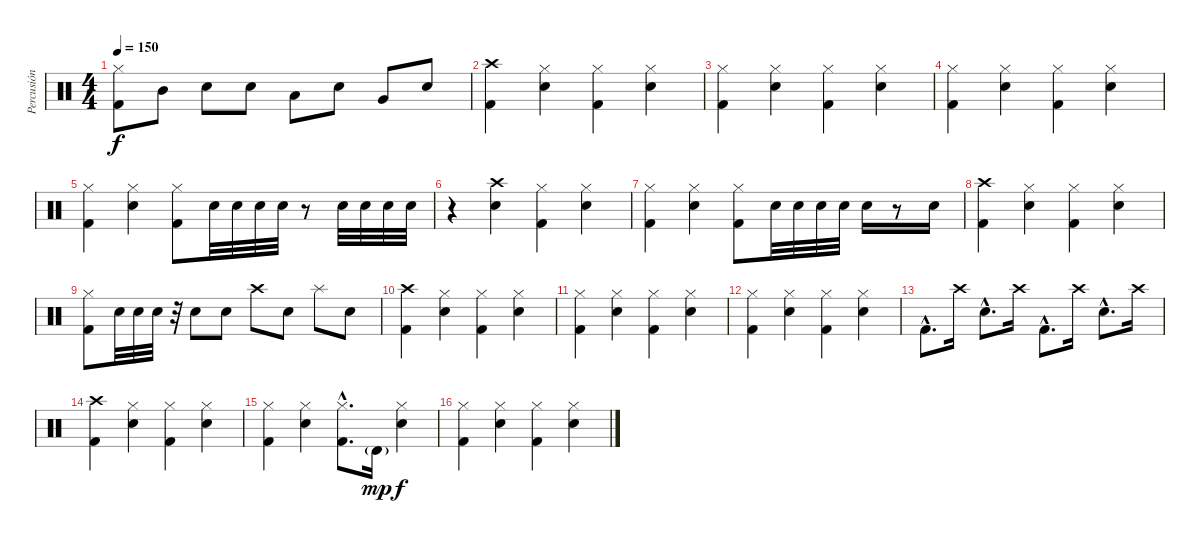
\track ("Percusión" "Percusión") {instrument percussion}
\staff {score}
\articulation defaults
\ts (4 4)
\tempo 150
\clef neutral
\ks c
("Hi-Hat (closed)" "Kick (hit) 2").8{dy f} "Mid Tom (hit)".8 "Electric Snare (hit)".8 "Electric Snare (hit)".8 "Low Tom (hit)".8 "Electric Snare (hit)".8 "Very Low Tom (hit)".8 "Electric Snare (hit)".8 |
("Crash high (hit)" "Kick (hit) 2").4 ("Hi-Hat (closed)" "Electric Snare (hit)").4 ("Hi-Hat (closed)" "Kick (hit) 2").4 ("Hi-Hat (closed)" "Electric Snare (hit)").4 |
("Hi-Hat (closed)" "Kick (hit) 2").4 ("Hi-Hat (closed)" "Electric Snare (hit)").4 ("Hi-Hat (closed)" "Kick (hit) 2").4 ("Hi-Hat (closed)" "Electric Snare (hit)").4 |
("Hi-Hat (closed)" "Kick (hit) 2").4 ("Hi-Hat (closed)" "Electric Snare (hit)").4 ("Hi-Hat (closed)" "Kick (hit) 2").4 ("Hi-Hat (closed)" "Electric Snare (hit)").4 |
("Hi-Hat (closed)" "Kick (hit) 2").4 ("Hi-Hat (closed)" "Electric Snare (hit)").4 ("Hi-Hat (closed)" "Kick (hit) 2").8 "Electric Snare (hit)".32 "Electric Snare (hit)".32 "Electric Snare (hit)".32 "Electric Snare (hit)".32 r.8 "Electric Snare (hit)".32 "Electric Snare (hit)".32 "Electric Snare (hit)".32 "Electric Snare (hit)".32 |
r.4 ("Crash high (hit)" "Electric Snare (hit)").4 ("Hi-Hat (closed)" "Kick (hit) 2").4 ("Hi-Hat (closed)" "Electric Snare (hit)").4 |
("Hi-Hat (closed)" "Kick (hit) 2").4 ("Hi-Hat (closed)" "Electric Snare (hit)").4 ("Hi-Hat (closed)" "Kick (hit) 2").8 "Electric Snare (hit)".32 "Electric Snare (hit)".32 "Electric Snare (hit)".32 "Electric Snare (hit)".32 "Electric Snare (hit)".16 r.8 "Electric Snare (hit)".16 |
("Crash high (hit)" "Kick (hit) 2").4 ("Hi-Hat (closed)" "Electric Snare (hit)").4 ("Hi-Hat (closed)" "Kick (hit) 2").4 ("Hi-Hat (closed)" "Electric Snare (hit)").4 |
("Hi-Hat (closed)" "Kick (hit) 2").8 "Electric Snare (hit)".32 "Electric Snare (hit)".32 "Electric Snare (hit)".32 r.32 "Electric Snare (hit)".8 "Electric Snare (hit)".8 "Crash high (hit)".8 "Electric Snare (hit)".8 "Splash (hit)".8 "Electric Snare (hit)".8 |
("Crash high (hit)" "Kick (hit) 2").4 ("Hi-Hat (closed)" "Electric Snare (hit)").4 ("Hi-Hat (closed)" "Kick (hit) 2").4 ("Hi-Hat (closed)" "Electric Snare (hit)").4 |
("Hi-Hat (closed)" "Kick (hit) 2").4 ("Hi-Hat (closed)" "Electric Snare (hit)").4 ("Hi-Hat (closed)" "Kick (hit) 2").4 ("Hi-Hat (closed)" "Electric Snare (hit)").4 |
("Hi-Hat (closed)" "Kick (hit) 2").4 ("Hi-Hat (closed)" "Electric Snare (hit)").4 ("Hi-Hat (closed)" "Kick (hit) 2").4 ("Hi-Hat (closed)" "Electric Snare (hit)").4 |
"Kick (hit) 2"{hac}.8{d} "Crash high (hit)".16 "Electric Snare (hit)"{hac}.8{d} "Crash high (hit)".16 "Kick (hit) 2"{hac}.8{d} "Crash high (hit)".16 "Electric Snare (hit)"{hac}.8{d} "Crash high (hit)".16 |
("Crash high (hit)" "Kick (hit) 2").4 ("Hi-Hat (closed)" "Electric Snare (hit)").4 ("Hi-Hat (closed)" "Kick (hit) 2").4 ("Hi-Hat (closed)" "Electric Snare (hit)").4 |
("Hi-Hat (closed)" "Kick (hit) 2").4 ("Hi-Hat (closed)" "Electric Snare (hit)").4 ("Hi-Hat (closed)"{hac} "Kick (hit) 2"{hac}).8{d} "Timbale high (hit)"{g}.16{dy mp} ("Hi-Hat (closed)" "Electric Snare (hit)").4{dy f} |
("Hi-Hat (closed)" "Kick (hit) 2").4 ("Hi-Hat (closed)" "Electric Snare (hit)").4 ("Hi-Hat (closed)" "Kick (hit) 2").4 ("Hi-Hat (closed)" "Electric Snare (hit)").4
